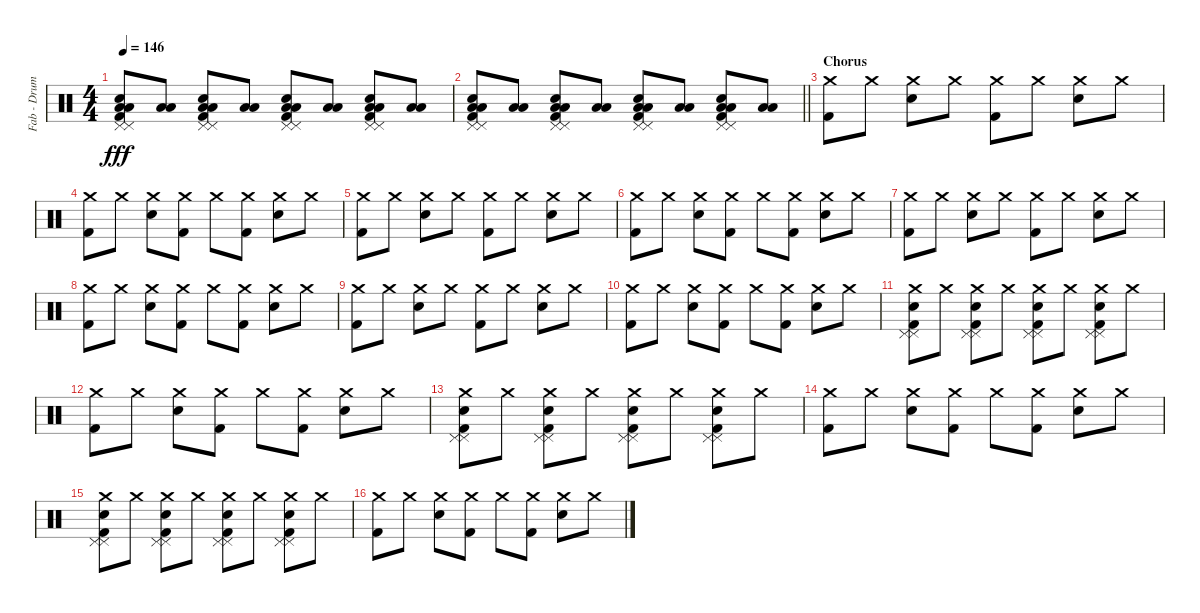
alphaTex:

\track ("Fab - Drums MIDI" "Fab - Drum") {instrument percussion}
\staff {score}
\articulation defaults
\ts (4 4)
\tempo 146
\clef neutral
\ks c
("Low Floor Tom (hit)" "Pedal Hi-Hat (hit)" "Snare (hit) 2" "Kick (hit) 2" "Pedal Hi-Hat (hit)" "Low Floor Tom (hit)").8{dy fff} ("Low Floor Tom (hit)" "Low Floor Tom (hit)").8 ("Low Floor Tom (hit)" "Pedal Hi-Hat (hit)" "Snare (hit) 2" "Kick (hit) 2" "Pedal Hi-Hat (hit)" "Low Floor Tom (hit)").8 ("Low Floor Tom (hit)" "Low Floor Tom (hit)").8 ("Low Floor Tom (hit)" "Pedal Hi-Hat (hit)" "Snare (hit) 2" "Kick (hit) 2" "Pedal Hi-Hat (hit)" "Low Floor Tom (hit)").8 ("Low Floor Tom (hit)" "Low Floor Tom (hit)").8 ("Low Floor Tom (hit)" "Pedal Hi-Hat (hit)" "Snare (hit) 2" "Kick (hit) 2" "Pedal Hi-Hat (hit)" "Low Floor Tom (hit)").8 ("Low Floor Tom (hit)" "Low Floor Tom (hit)").8 |
\barLineRight lightlight
("Low Floor Tom (hit)" "Pedal Hi-Hat (hit)" "Snare (hit) 2" "Kick (hit) 2" "Pedal Hi-Hat (hit)" "Low Floor Tom (hit)").8 ("Low Floor Tom (hit)" "Low Floor Tom (hit)").8 ("Low Floor Tom (hit)" "Pedal Hi-Hat (hit)" "Snare (hit) 2" "Kick (hit) 2" "Pedal Hi-Hat (hit)" "Low Floor Tom (hit)").8 ("Low Floor Tom (hit)" "Low Floor Tom (hit)").8 ("Low Floor Tom (hit)" "Pedal Hi-Hat (hit)" "Snare (hit) 2" "Kick (hit) 2" "Pedal Hi-Hat (hit)" "Low Floor Tom (hit)").8 ("Low Floor Tom (hit)" "Low Floor Tom (hit)").8 ("Low Floor Tom (hit)" "Pedal Hi-Hat (hit)" "Snare (hit) 2" "Kick (hit) 2" "Pedal Hi-Hat (hit)" "Low Floor Tom (hit)").8 ("Low Floor Tom (hit)" "Low Floor Tom (hit)").8 |
\section ("" "Chorus")
("Crash medium (hit)" "Kick (hit) 2").8 "Crash medium (hit)".8 ("Crash medium (hit)" "Snare (hit) 2").8 "Crash medium (hit)".8 ("Crash medium (hit)" "Kick (hit) 2").8 "Crash medium (hit)".8 ("Crash medium (hit)" "Snare (hit) 2").8 "Crash medium (hit)".8 |
("Crash medium (hit)" "Kick (hit) 2").8 "Crash medium (hit)".8 ("Crash medium (hit)" "Snare (hit) 2").8 ("Crash medium (hit)" "Kick (hit) 2").8 "Crash medium (hit)".8 ("Crash medium (hit)" "Kick (hit) 2").8 ("Crash medium (hit)" "Snare (hit) 2").8 "Crash medium (hit)".8 |
("Crash medium (hit)" "Kick (hit) 2").8 "Crash medium (hit)".8 ("Crash medium (hit)" "Snare (hit) 2").8 "Crash medium (hit)".8 ("Crash medium (hit)" "Kick (hit) 2").8 "Crash medium (hit)".8 ("Crash medium (hit)" "Snare (hit) 2").8 "Crash medium (hit)".8 |
("Crash medium (hit)" "Kick (hit) 2").8 "Crash medium (hit)".8 ("Crash medium (hit)" "Snare (hit) 2").8 ("Crash medium (hit)" "Kick (hit) 2").8 "Crash medium (hit)".8 ("Crash medium (hit)" "Kick (hit) 2").8 ("Crash medium (hit)" "Snare (hit) 2").8 "Crash medium (hit)".8 |
("Crash medium (hit)" "Kick (hit) 2").8 "Crash medium (hit)".8 ("Crash medium (hit)" "Snare (hit) 2").8 "Crash medium (hit)".8 ("Crash medium (hit)" "Kick (hit) 2").8 "Crash medium (hit)".8 ("Crash medium (hit)" "Snare (hit) 2").8 "Crash medium (hit)".8 |
("Crash medium (hit)" "Kick (hit) 2").8 "Crash medium (hit)".8 ("Crash medium (hit)" "Snare (hit) 2").8 ("Crash medium (hit)" "Kick (hit) 2").8 "Crash medium (hit)".8 ("Crash medium (hit)" "Kick (hit) 2").8 ("Crash medium (hit)" "Snare (hit) 2").8 "Crash medium (hit)".8 |
("Crash medium (hit)" "Kick (hit) 2").8 "Crash medium (hit)".8 ("Crash medium (hit)" "Snare (hit) 2").8 "Crash medium (hit)".8 ("Crash medium (hit)" "Kick (hit) 2").8 "Crash medium (hit)".8 ("Crash medium (hit)" "Snare (hit) 2").8 "Crash medium (hit)".8 |
("Crash medium (hit)" "Kick (hit) 2").8 "Crash medium (hit)".8 ("Crash medium (hit)" "Snare (hit) 2").8 ("Crash medium (hit)" "Kick (hit) 2").8 "Crash medium (hit)".8 ("Crash medium (hit)" "Kick (hit) 2").8 ("Crash medium (hit)" "Snare (hit) 2").8 "Crash medium (hit)".8 |
("Crash medium (hit)" "Pedal Hi-Hat (hit)" "Snare (hit) 2" "Kick (hit) 2" "Pedal Hi-Hat (hit)").8 "Crash medium (hit)".8 ("Crash medium (hit)" "Pedal Hi-Hat (hit)" "Snare (hit) 2" "Kick (hit) 2" "Pedal Hi-Hat (hit)").8 "Crash medium (hit)".8 ("Crash medium (hit)" "Pedal Hi-Hat (hit)" "Snare (hit) 2" "Kick (hit) 2" "Pedal Hi-Hat (hit)").8 "Crash medium (hit)".8 ("Crash medium (hit)" "Pedal Hi-Hat (hit)" "Snare (hit) 2" "Kick (hit) 2" "Pedal Hi-Hat (hit)").8 "Crash medium (hit)".8 |
("Crash medium (hit)" "Kick (hit) 2").8 "Crash medium (hit)".8 ("Crash medium (hit)" "Snare (hit) 2").8 ("Crash medium (hit)" "Kick (hit) 2").8 "Crash medium (hit)".8 ("Crash medium (hit)" "Kick (hit) 2").8 ("Crash medium (hit)" "Snare (hit) 2").8 "Crash medium (hit)".8 |
("Crash medium (hit)" "Pedal Hi-Hat (hit)" "Snare (hit) 2" "Kick (hit) 2" "Pedal Hi-Hat (hit)").8 "Crash medium (hit)".8 ("Crash medium (hit)" "Pedal Hi-Hat (hit)" "Snare (hit) 2" "Kick (hit) 2" "Pedal Hi-Hat (hit)").8 "Crash medium (hit)".8 ("Crash medium (hit)" "Pedal Hi-Hat (hit)" "Snare (hit) 2" "Kick (hit) 2" "Pedal Hi-Hat (hit)").8 "Crash medium (hit)".8 ("Crash medium (hit)" "Pedal Hi-Hat (hit)" "Snare (hit) 2" "Kick (hit) 2" "Pedal Hi-Hat (hit)").8 "Crash medium (hit)".8 |
("Crash medium (hit)" "Kick (hit) 2").8 "Crash medium (hit)".8 ("Crash medium (hit)" "Snare (hit) 2").8 ("Crash medium (hit)" "Kick (hit) 2").8 "Crash medium (hit)".8 ("Crash medium (hit)" "Kick (hit) 2").8 ("Crash medium (hit)" "Snare (hit) 2").8 "Crash medium (hit)".8 |
("Crash medium (hit)" "Pedal Hi-Hat (hit)" "Snare (hit) 2" "Kick (hit) 2" "Pedal Hi-Hat (hit)").8 "Crash medium (hit)".8 ("Crash medium (hit)" "Pedal Hi-Hat (hit)" "Snare (hit) 2" "Kick (hit) 2" "Pedal Hi-Hat (hit)").8 "Crash medium (hit)".8 ("Crash medium (hit)" "Pedal Hi-Hat (hit)" "Snare (hit) 2" "Kick (hit) 2" "Pedal Hi-Hat (hit)").8 "Crash medium (hit)".8 ("Crash medium (hit)" "Pedal Hi-Hat (hit)" "Snare (hit) 2" "Kick (hit) 2" "Pedal Hi-Hat (hit)").8 "Crash medium (hit)".8 |
("Crash medium (hit)" "Kick (hit) 2").8 "Crash medium (hit)".8 ("Crash medium (hit)" "Snare (hit) 2").8 ("Crash medium (hit)" "Kick (hit) 2").8 "Crash medium (hit)".8 ("Crash medium (hit)" "Kick (hit) 2").8 ("Crash medium (hit)" "Snare (hit) 2").8 "Crash medium (hit)".8
